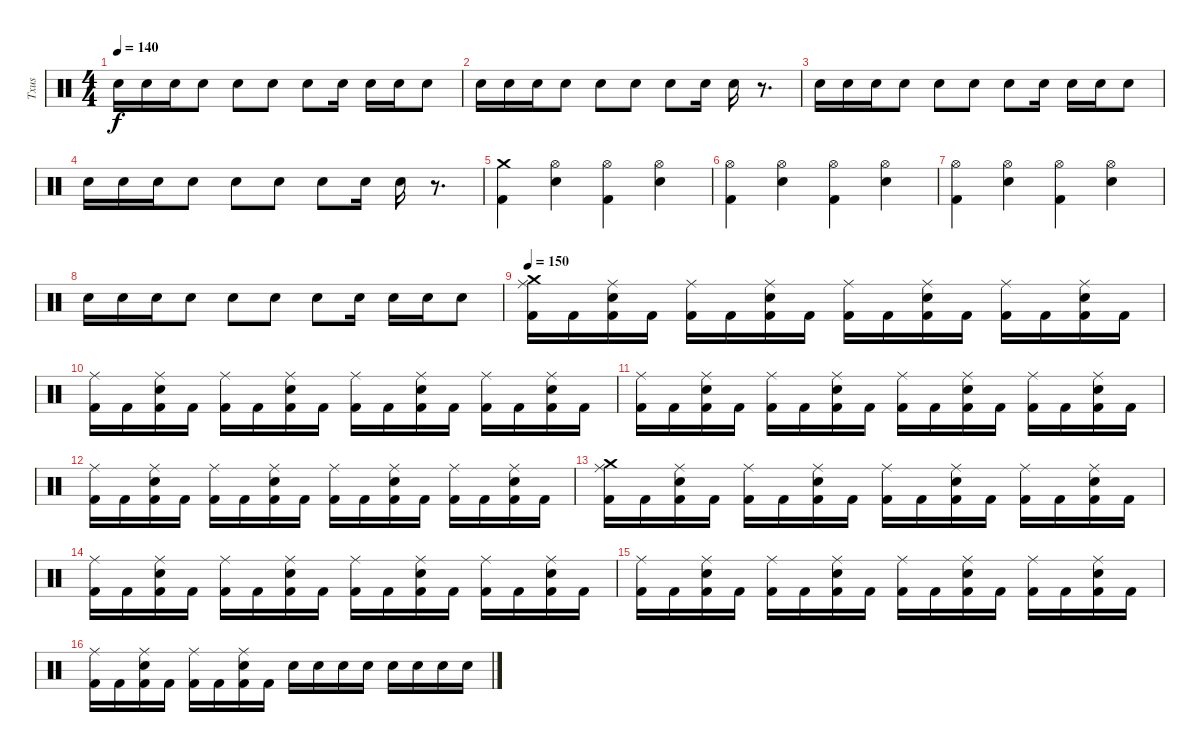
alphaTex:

\track ("Txus" "Txus") {instrument percussion}
\staff {score}
\articulation defaults
\ts (4 4)
\tempo 140
\clef neutral
\ks c "Electric Snare (hit)".16{dy f} "Electric Snare (hit)".16 "Electric Snare (hit)".16 "Electric Snare (hit)".8 "Electric Snare (hit)".8 "Electric Snare (hit)".8 "Electric Snare (hit)".8 "Electric Snare (hit)".16 "Electric Snare (hit)".16 "Electric Snare (hit)".16 "Electric Snare (hit)".8
|
"Electric Snare (hit)".16 "Electric Snare (hit)".16 "Electric Snare (hit)".16 "Electric Snare (hit)".8 "Electric Snare (hit)".8 "Electric Snare (hit)".8 "Electric Snare (hit)".8 "Electric Snare (hit)".16 "Electric Snare (hit)".16 r.8{d} |
"Electric Snare (hit)".16 "Electric Snare (hit)".16 "Electric Snare (hit)".16 "Electric Snare (hit)".8 "Electric Snare (hit)".8 "Electric Snare (hit)".8 "Electric Snare (hit)".8 "Electric Snare (hit)".16 "Electric Snare (hit)".16 "Electric Snare (hit)".16 "Electric Snare (hit)".8 |
"Electric Snare (hit)".16 "Electric Snare (hit)".16 "Electric Snare (hit)".16 "Electric Snare (hit)".8 "Electric Snare (hit)".8 "Electric Snare (hit)".8 "Electric Snare (hit)".8 "Electric Snare (hit)".16 "Electric Snare (hit)".16 r.8{d} |
("Crash medium (hit)" "Kick (hit) 2").4 ("Hi-Hat (open)" "Electric Snare (hit)").4 ("Hi-Hat (open)" "Kick (hit) 2").4 ("Hi-Hat (open)" "Electric Snare (hit)").4 |
("Hi-Hat (open)" "Kick (hit) 2").4 ("Hi-Hat (open)" "Electric Snare (hit)").4 ("Hi-Hat (open)" "Kick (hit) 2").4 ("Hi-Hat (open)" "Electric Snare (hit)").4 |
("Hi-Hat (open)" "Kick (hit) 2").4 ("Hi-Hat (open)" "Electric Snare (hit)").4 ("Hi-Hat (open)" "Kick (hit) 2").4 ("Hi-Hat (open)" "Electric Snare (hit)").4 |
"Electric Snare (hit)".16 "Electric Snare (hit)".16 "Electric Snare (hit)".16 "Electric Snare (hit)".8 "Electric Snare (hit)".8 "Electric Snare (hit)".8 "Electric Snare (hit)".8 "Electric Snare (hit)".16 "Electric Snare (hit)".16 "Electric Snare (hit)".16 "Electric Snare (hit)".8 |
\tempo 150
("Crash medium (hit)" "Ride (middle)" "Kick (hit) 2").16 "Kick (hit) 2".16 ("Ride (middle)" "Electric Snare (hit)" "Kick (hit) 2").16 "Kick (hit) 2".16 ("Ride (middle)" "Kick (hit) 2").16 "Kick (hit) 2".16 ("Ride (middle)" "Electric Snare (hit)" "Kick (hit) 2").16 "Kick (hit) 2".16 ("Ride (middle)" "Kick (hit) 2").16 "Kick (hit) 2".16 ("Ride (middle)" "Electric Snare (hit)" "Kick (hit) 2").16 "Kick (hit) 2".16 ("Ride (middle)" "Kick (hit) 2").16 "Kick (hit) 2".16 ("Ride (middle)" "Electric Snare (hit)" "Kick (hit) 2").16 "Kick (hit) 2".16 |
("Ride (middle)" "Kick (hit) 2").16 "Kick (hit) 2".16 ("Ride (middle)" "Electric Snare (hit)" "Kick (hit) 2").16 "Kick (hit) 2".16 ("Ride (middle)" "Kick (hit) 2").16 "Kick (hit) 2".16 ("Ride (middle)" "Electric Snare (hit)" "Kick (hit) 2").16 "Kick (hit) 2".16 ("Ride (middle)" "Kick (hit) 2").16 "Kick (hit) 2".16 ("Ride (middle)" "Electric Snare (hit)" "Kick (hit) 2").16 "Kick (hit) 2".16 ("Ride (middle)" "Kick (hit) 2").16 "Kick (hit) 2".16 ("Ride (middle)" "Electric Snare (hit)" "Kick (hit) 2").16 "Kick (hit) 2".16 |
("Ride (middle)" "Kick (hit) 2").16 "Kick (hit) 2".16 ("Ride (middle)" "Electric Snare (hit)" "Kick (hit) 2").16 "Kick (hit) 2".16 ("Ride (middle)" "Kick (hit) 2").16 "Kick (hit) 2".16 ("Ride (middle)" "Electric Snare (hit)" "Kick (hit) 2").16 "Kick (hit) 2".16 ("Ride (middle)" "Kick (hit) 2").16 "Kick (hit) 2".16 ("Ride (middle)" "Electric Snare (hit)" "Kick (hit) 2").16 "Kick (hit) 2".16 ("Ride (middle)" "Kick (hit) 2").16 "Kick (hit) 2".16 ("Ride (middle)" "Electric Snare (hit)" "Kick (hit) 2").16 "Kick (hit) 2".16 |
("Ride (middle)" "Kick (hit) 2").16 "Kick (hit) 2".16 ("Ride (middle)" "Electric Snare (hit)" "Kick (hit) 2").16 "Kick (hit) 2".16 ("Ride (middle)" "Kick (hit) 2").16 "Kick (hit) 2".16 ("Ride (middle)" "Electric Snare (hit)" "Kick (hit) 2").16 "Kick (hit) 2".16 ("Ride (middle)" "Kick (hit) 2").16 "Kick (hit) 2".16 ("Ride (middle)" "Electric Snare (hit)" "Kick (hit) 2").16 "Kick (hit) 2".16 ("Ride (middle)" "Kick (hit) 2").16 "Kick (hit) 2".16 ("Ride (middle)" "Electric Snare (hit)" "Kick (hit) 2").16 "Kick (hit) 2".16 |
("Crash medium (hit)" "Ride (middle)" "Kick (hit) 2").16 "Kick (hit) 2".16 ("Ride (middle)" "Electric Snare (hit)" "Kick (hit) 2").16 "Kick (hit) 2".16 ("Ride (middle)" "Kick (hit) 2").16 "Kick (hit) 2".16 ("Ride (middle)" "Electric Snare (hit)" "Kick (hit) 2").16 "Kick (hit) 2".16 ("Ride (middle)" "Kick (hit) 2").16 "Kick (hit) 2".16 ("Ride (middle)" "Electric Snare (hit)" "Kick (hit) 2").16 "Kick (hit) 2".16 ("Ride (middle)" "Kick (hit) 2").16 "Kick (hit) 2".16 ("Ride (middle)" "Electric Snare (hit)" "Kick (hit) 2").16 "Kick (hit) 2".16 |
("Ride (middle)" "Kick (hit) 2").16 "Kick (hit) 2".16 ("Ride (middle)" "Electric Snare (hit)" "Kick (hit) 2").16 "Kick (hit) 2".16 ("Ride (middle)" "Kick (hit) 2").16 "Kick (hit) 2".16 ("Ride (middle)" "Electric Snare (hit)" "Kick (hit) 2").16 "Kick (hit) 2".16 ("Ride (middle)" "Kick (hit) 2").16 "Kick (hit) 2".16 ("Ride (middle)" "Electric Snare (hit)" "Kick (hit) 2").16 "Kick (hit) 2".16 ("Ride (middle)" "Kick (hit) 2").16 "Kick (hit) 2".16 ("Ride (middle)" "Electric Snare (hit)" "Kick (hit) 2").16 "Kick (hit) 2".16 |
("Ride (middle)" "Kick (hit) 2").16 "Kick (hit) 2".16 ("Ride (middle)" "Electric Snare (hit)" "Kick (hit) 2").16 "Kick (hit) 2".16 ("Ride (middle)" "Kick (hit) 2").16 "Kick (hit) 2".16 ("Ride (middle)" "Electric Snare (hit)" "Kick (hit) 2").16 "Kick (hit) 2".16 ("Ride (middle)" "Kick (hit) 2").16 "Kick (hit) 2".16 ("Ride (middle)" "Electric Snare (hit)" "Kick (hit) 2").16 "Kick (hit) 2".16 ("Ride (middle)" "Kick (hit) 2").16 "Kick (hit) 2".16 ("Ride (middle)" "Electric Snare (hit)" "Kick (hit) 2").16 "Kick (hit) 2".16 |
("Ride (middle)" "Kick (hit) 2").16 "Kick (hit) 2".16 ("Ride (middle)" "Electric Snare (hit)" "Kick (hit) 2").16 "Kick (hit) 2".16 ("Ride (middle)" "Kick (hit) 2").16 "Kick (hit) 2".16 ("Ride (middle)" "Electric Snare (hit)" "Kick (hit) 2").16 "Kick (hit) 2".16 "Electric Snare (hit)".16 "Electric Snare (hit)".16 "Electric Snare (hit)".16 "Electric Snare (hit)".16 "Electric Snare (hit)".16 "Electric Snare (hit)".16 "Electric Snare (hit)".16 "Electric Snare (hit)".16
